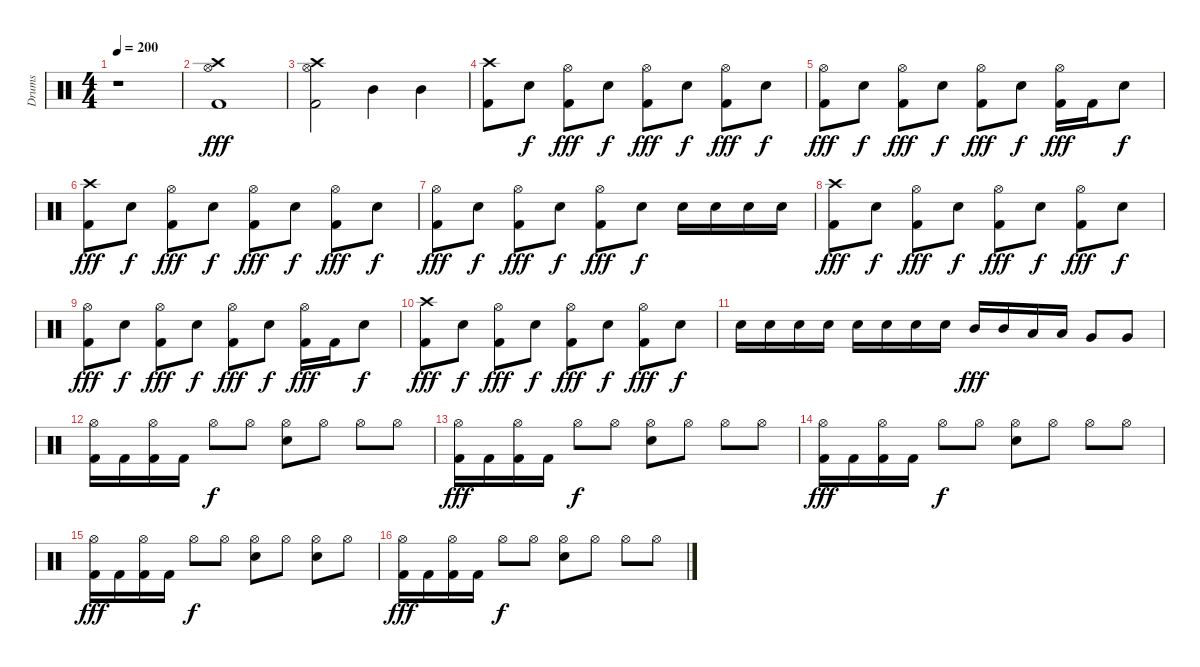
\track ("Drums" "Drums") {instrument percussion}
\staff {score}
\articulation defaults
\ts (4 4)
\tempo 200
\clef neutral
\ks c
r.1{dy f} |
("Hi-Hat (open)" "Crash high (hit)" "Kick (hit) 2").1{dy fff} |
("Hi-Hat (open)" "Crash high (hit)" "Kick (hit) 2").2 "Mid Tom (hit)".4 "Mid Tom (hit)".4 |
("Crash high (hit)" "Kick (hit) 2").8 "Electric Snare (hit)".8{dy f} ("Hi-Hat (open)" "Kick (hit) 2").8{dy fff} "Electric Snare (hit)".8{dy f} ("Hi-Hat (open)" "Kick (hit) 2").8{dy fff} "Electric Snare (hit)".8{dy f} ("Hi-Hat (open)" "Kick (hit) 2").8{dy fff} "Electric Snare (hit)".8{dy f} |
("Hi-Hat (open)" "Kick (hit) 2").8{dy fff} "Electric Snare (hit)".8{dy f} ("Hi-Hat (open)" "Kick (hit) 2").8{dy fff} "Electric Snare (hit)".8{dy f} ("Hi-Hat (open)" "Kick (hit) 2").8{dy fff} "Electric Snare (hit)".8{dy f} ("Hi-Hat (open)" "Kick (hit) 2").16{dy fff} "Kick (hit) 2".16 "Electric Snare (hit)".8{dy f} |
("Crash high (hit)" "Kick (hit) 2").8{dy fff} "Electric Snare (hit)".8{dy f} ("Hi-Hat (open)" "Kick (hit) 2").8{dy fff} "Electric Snare (hit)".8{dy f} ("Hi-Hat (open)" "Kick (hit) 2").8{dy fff} "Electric Snare (hit)".8{dy f} ("Hi-Hat (open)" "Kick (hit) 2").8{dy fff} "Electric Snare (hit)".8{dy f} |
("Hi-Hat (open)" "Kick (hit) 2").8{dy fff} "Electric Snare (hit)".8{dy f} ("Hi-Hat (open)" "Kick (hit) 2").8{dy fff} "Electric Snare (hit)".8{dy f} ("Hi-Hat (open)" "Kick (hit) 2").8{dy fff} "Electric Snare (hit)".8{dy f} "Electric Snare (hit)".16 "Electric Snare (hit)".16 "Electric Snare (hit)".16 "Electric Snare (hit)".16 |
("Crash high (hit)" "Kick (hit) 2").8{dy fff} "Electric Snare (hit)".8{dy f} ("Hi-Hat (open)" "Kick (hit) 2").8{dy fff} "Electric Snare (hit)".8{dy f} ("Hi-Hat (open)" "Kick (hit) 2").8{dy fff} "Electric Snare (hit)".8{dy f} ("Hi-Hat (open)" "Kick (hit) 2").8{dy fff} "Electric Snare (hit)".8{dy f} |
("Hi-Hat (open)" "Kick (hit) 2").8{dy fff} "Electric Snare (hit)".8{dy f} ("Hi-Hat (open)" "Kick (hit) 2").8{dy fff} "Electric Snare (hit)".8{dy f} ("Hi-Hat (open)" "Kick (hit) 2").8{dy fff} "Electric Snare (hit)".8{dy f} ("Hi-Hat (open)" "Kick (hit) 2").16{dy fff} "Kick (hit) 2".16 "Electric Snare (hit)".8{dy f} |
("Crash high (hit)" "Kick (hit) 2").8{dy fff} "Electric Snare (hit)".8{dy f} ("Hi-Hat (open)" "Kick (hit) 2").8{dy fff} "Electric Snare (hit)".8{dy f} ("Hi-Hat (open)" "Kick (hit) 2").8{dy fff} "Electric Snare (hit)".8{dy f} ("Hi-Hat (open)" "Kick (hit) 2").8{dy fff} "Electric Snare (hit)".8{dy f} |
"Electric Snare (hit)".16 "Electric Snare (hit)".16 "Electric Snare (hit)".16 "Electric Snare (hit)".16 "Electric Snare (hit)".16 "Electric Snare (hit)".16 "Electric Snare (hit)".16 "Electric Snare (hit)".16 "Mid Tom (hit)".16{dy fff} "Mid Tom (hit)".16 "Low Tom (hit)".16 "Low Tom (hit)".16 "Very Low Tom (hit)".8 "Very Low Tom (hit)".8 |
("Hi-Hat (open)" "Kick (hit) 2").16 "Kick (hit) 2".16 ("Hi-Hat (open)" "Kick (hit) 2").16 "Kick (hit) 2".16 "Hi-Hat (open)".8{dy f} "Hi-Hat (open)".8 ("Hi-Hat (open)" "Electric Snare (hit)").8 "Hi-Hat (open)".8 "Hi-Hat (open)".8 "Hi-Hat (open)".8 |
("Hi-Hat (open)" "Kick (hit) 2").16{dy fff} "Kick (hit) 2".16 ("Hi-Hat (open)" "Kick (hit) 2").16 "Kick (hit) 2".16 "Hi-Hat (open)".8{dy f} "Hi-Hat (open)".8 ("Hi-Hat (open)" "Electric Snare (hit)").8 "Hi-Hat (open)".8 "Hi-Hat (open)".8 "Hi-Hat (open)".8 |
("Hi-Hat (open)" "Kick (hit) 2").16{dy fff} "Kick (hit) 2".16 ("Hi-Hat (open)" "Kick (hit) 2").16 "Kick (hit) 2".16 "Hi-Hat (open)".8{dy f} "Hi-Hat (open)".8 ("Hi-Hat (open)" "Electric Snare (hit)").8 "Hi-Hat (open)".8 "Hi-Hat (open)".8 "Hi-Hat (open)".8 |
("Hi-Hat (open)" "Kick (hit) 2").16{dy fff} "Kick (hit) 2".16 ("Hi-Hat (open)" "Kick (hit) 2").16 "Kick (hit) 2".16 "Hi-Hat (open)".8{dy f} "Hi-Hat (open)".8 ("Hi-Hat (open)" "Electric Snare (hit)").8 "Hi-Hat (open)".8 ("Hi-Hat (open)" "Electric Snare (hit)").8 "Hi-Hat (open)".8 |
("Hi-Hat (open)" "Kick (hit) 2").16{dy fff} "Kick (hit) 2".16 ("Hi-Hat (open)" "Kick (hit) 2").16 "Kick (hit) 2".16 "Hi-Hat (open)".8{dy f} "Hi-Hat (open)".8 ("Hi-Hat (open)" "Electric Snare (hit)").8 "Hi-Hat (open)".8 "Hi-Hat (open)".8 "Hi-Hat (open)".8
